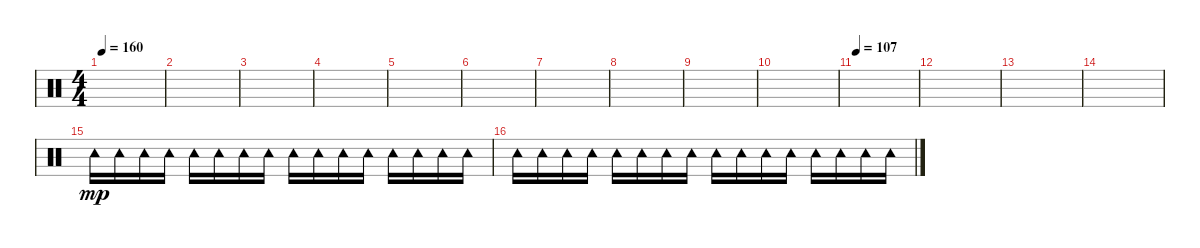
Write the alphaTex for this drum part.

\track "" {instrument percussion}
\staff {score}
\articulation defaults
\ts (4 4)
\tempo 160
\clef neutral
\ks c
|
|
|
|
|
|
|
|
|
|
\tempo 107
|
|
|
|
"Tambourine (hit)".16{dy mp} "Tambourine (hit)".16 "Tambourine (hit)".16 "Tambourine (hit)".16 "Tambourine (hit)".16 "Tambourine (hit)".16 "Tambourine (hit)".16 "Tambourine (hit)".16 "Tambourine (hit)".16 "Tambourine (hit)".16 "Tambourine (hit)".16 "Tambourine (hit)".16 "Tambourine (hit)".16 "Tambourine (hit)".16 "Tambourine (hit)".16 "Tambourine (hit)".16 |
"Tambourine (hit)".16 "Tambourine (hit)".16 "Tambourine (hit)".16 "Tambourine (hit)".16 "Tambourine (hit)".16 "Tambourine (hit)".16 "Tambourine (hit)".16 "Tambourine (hit)".16 "Tambourine (hit)".16 "Tambourine (hit)".16 "Tambourine (hit)".16 "Tambourine (hit)".16 "Tambourine (hit)".16 "Tambourine (hit)".16 "Tambourine (hit)".16 "Tambourine (hit)".16
